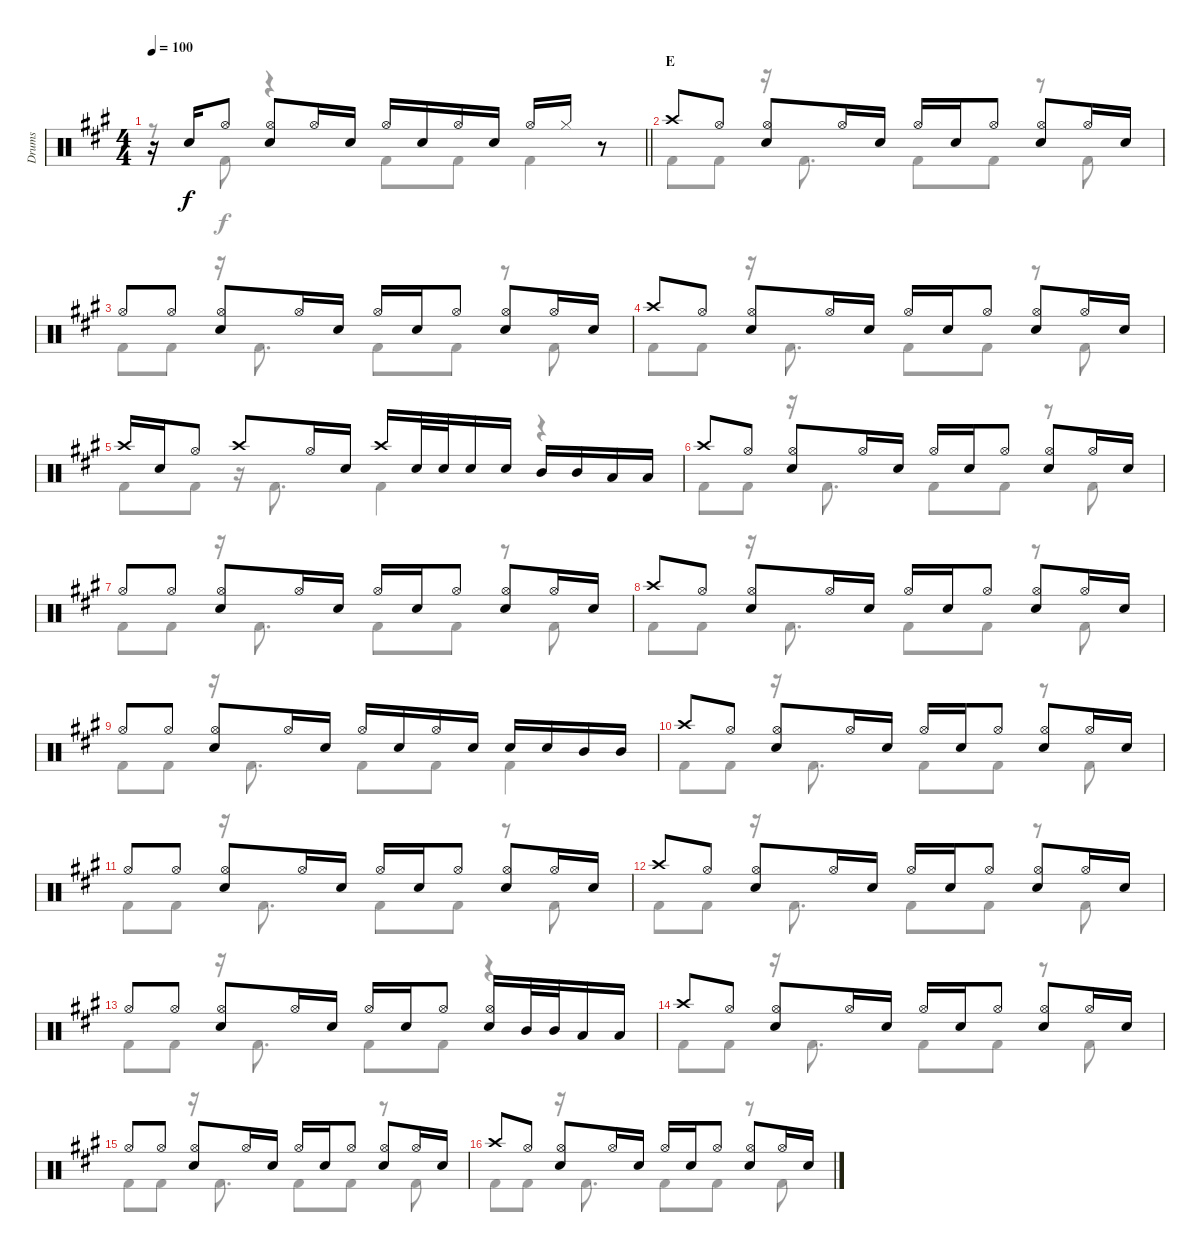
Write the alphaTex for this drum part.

\track ("Drums" "Drums") {instrument percussion}
\staff {score}
\articulation defaults
\voice
\ts (4 4)
\tempo 100
\clef neutral
\barLineRight lightlight
\ks a
r.16{dy f} "Electric Snare (hit)".16 "Hi-Hat (open)".8 ("Hi-Hat (open)" "Electric Snare (hit)").8 "Hi-Hat (open)".16 "Electric Snare (hit)".16 "Hi-Hat (open)".16 "Electric Snare (hit)".16 "Hi-Hat (open)".16 "Electric Snare (hit)".16 "Hi-Hat (open)".16 "Hi-Hat (closed)".16 r.8 |
\section ("" "E")
"Crash high (hit)".8 "Hi-Hat (open)".8 ("Hi-Hat (open)" "Electric Snare (hit)").8 "Hi-Hat (open)".16 "Electric Snare (hit)".16 "Hi-Hat (open)".16 "Electric Snare (hit)".16 "Hi-Hat (open)".8 ("Hi-Hat (open)" "Electric Snare (hit)").8 "Hi-Hat (open)".16 "Electric Snare (hit)".16 |
"Hi-Hat (open)".8 "Hi-Hat (open)".8 ("Hi-Hat (open)" "Electric Snare (hit)").8 "Hi-Hat (open)".16 "Electric Snare (hit)".16 "Hi-Hat (open)".16 "Electric Snare (hit)".16 "Hi-Hat (open)".8 ("Hi-Hat (open)" "Electric Snare (hit)").8 "Hi-Hat (open)".16 "Electric Snare (hit)".16 |
"Crash high (hit)".8 "Hi-Hat (open)".8 ("Hi-Hat (open)" "Electric Snare (hit)").8 "Hi-Hat (open)".16 "Electric Snare (hit)".16 "Hi-Hat (open)".16 "Electric Snare (hit)".16 "Hi-Hat (open)".8 ("Hi-Hat (open)" "Electric Snare (hit)").8 "Hi-Hat (open)".16 "Electric Snare (hit)".16 |
"Crash high (hit)".16 "Electric Snare (hit)".16 "Hi-Hat (open)".8 "Crash high (hit)".8 "Hi-Hat (open)".16 "Electric Snare (hit)".16 "Crash high (hit)".16 "Electric Snare (hit)".32 "Electric Snare (hit)".32 "Electric Snare (hit)".16 "Electric Snare (hit)".16 "Mid Tom (hit)".16 "Mid Tom (hit)".16 "Low Tom (hit)".16 "Low Tom (hit)".16 |
"Crash high (hit)".8 "Hi-Hat (open)".8 ("Hi-Hat (open)" "Electric Snare (hit)").8 "Hi-Hat (open)".16 "Electric Snare (hit)".16 "Hi-Hat (open)".16 "Electric Snare (hit)".16 "Hi-Hat (open)".8 ("Hi-Hat (open)" "Electric Snare (hit)").8 "Hi-Hat (open)".16 "Electric Snare (hit)".16 |
"Hi-Hat (open)".8 "Hi-Hat (open)".8 ("Hi-Hat (open)" "Electric Snare (hit)").8 "Hi-Hat (open)".16 "Electric Snare (hit)".16 "Hi-Hat (open)".16 "Electric Snare (hit)".16 "Hi-Hat (open)".8 ("Hi-Hat (open)" "Electric Snare (hit)").8 "Hi-Hat (open)".16 "Electric Snare (hit)".16 |
"Crash high (hit)".8 "Hi-Hat (open)".8 ("Hi-Hat (open)" "Electric Snare (hit)").8 "Hi-Hat (open)".16 "Electric Snare (hit)".16 "Hi-Hat (open)".16 "Electric Snare (hit)".16 "Hi-Hat (open)".8 ("Hi-Hat (open)" "Electric Snare (hit)").8 "Hi-Hat (open)".16 "Electric Snare (hit)".16 |
"Hi-Hat (open)".8 "Hi-Hat (open)".8 ("Hi-Hat (open)" "Electric Snare (hit)").8 "Hi-Hat (open)".16 "Electric Snare (hit)".16 "Hi-Hat (open)".16 "Electric Snare (hit)".16 "Hi-Hat (open)".16 "Electric Snare (hit)".16 "Electric Snare (hit)".16 "Electric Snare (hit)".16 "Mid Tom (hit)".16 "Mid Tom (hit)".16 |
"Crash high (hit)".8 "Hi-Hat (open)".8 ("Hi-Hat (open)" "Electric Snare (hit)").8 "Hi-Hat (open)".16 "Electric Snare (hit)".16 "Hi-Hat (open)".16 "Electric Snare (hit)".16 "Hi-Hat (open)".8 ("Hi-Hat (open)" "Electric Snare (hit)").8 "Hi-Hat (open)".16 "Electric Snare (hit)".16 |
"Hi-Hat (open)".8 "Hi-Hat (open)".8 ("Hi-Hat (open)" "Electric Snare (hit)").8 "Hi-Hat (open)".16 "Electric Snare (hit)".16 "Hi-Hat (open)".16 "Electric Snare (hit)".16 "Hi-Hat (open)".8 ("Hi-Hat (open)" "Electric Snare (hit)").8 "Hi-Hat (open)".16 "Electric Snare (hit)".16 |
"Crash high (hit)".8 "Hi-Hat (open)".8 ("Hi-Hat (open)" "Electric Snare (hit)").8 "Hi-Hat (open)".16 "Electric Snare (hit)".16 "Hi-Hat (open)".16 "Electric Snare (hit)".16 "Hi-Hat (open)".8 ("Hi-Hat (open)" "Electric Snare (hit)").8 "Hi-Hat (open)".16 "Electric Snare (hit)".16 |
"Hi-Hat (open)".8 "Hi-Hat (open)".8 ("Hi-Hat (open)" "Electric Snare (hit)").8 "Hi-Hat (open)".16 "Electric Snare (hit)".16 "Hi-Hat (open)".16 "Electric Snare (hit)".16 "Hi-Hat (open)".8 ("Hi-Hat (open)" "Electric Snare (hit)").16 "Mid Tom (hit)".32 "Mid Tom (hit)".32 "Low Tom (hit)".16 "Low Tom (hit)".16 |
"Crash high (hit)".8 "Hi-Hat (open)".8 ("Hi-Hat (open)" "Electric Snare (hit)").8 "Hi-Hat (open)".16 "Electric Snare (hit)".16 "Hi-Hat (open)".16 "Electric Snare (hit)".16 "Hi-Hat (open)".8 ("Hi-Hat (open)" "Electric Snare (hit)").8 "Hi-Hat (open)".16 "Electric Snare (hit)".16 |
"Hi-Hat (open)".8 "Hi-Hat (open)".8 ("Hi-Hat (open)" "Electric Snare (hit)").8 "Hi-Hat (open)".16 "Electric Snare (hit)".16 "Hi-Hat (open)".16 "Electric Snare (hit)".16 "Hi-Hat (open)".8 ("Hi-Hat (open)" "Electric Snare (hit)").8 "Hi-Hat (open)".16 "Electric Snare (hit)".16 |
"Crash high (hit)".8 "Hi-Hat (open)".8 ("Hi-Hat (open)" "Electric Snare (hit)").8 "Hi-Hat (open)".16 "Electric Snare (hit)".16 "Hi-Hat (open)".16 "Electric Snare (hit)".16 "Hi-Hat (open)".8 ("Hi-Hat (open)" "Electric Snare (hit)").8 "Hi-Hat (open)".16 "Electric Snare (hit)".16
\voice
\clef neutral
\ottava regular
\simile none
\barLineRight lightlight
\ks a
r.8{dy f} "Kick (hit) 2".8 r.4 "Kick (hit) 2".8 "Kick (hit) 2".8 "Kick (hit) 2".4 |
"Kick (hit) 2".8 "Kick (hit) 2".8 r.16 "Kick (hit) 2".8{d} "Kick (hit) 2".8 "Kick (hit) 2".8 r.8 "Kick (hit) 2".8 |
"Kick (hit) 2".8 "Kick (hit) 2".8 r.16 "Kick (hit) 2".8{d} "Kick (hit) 2".8 "Kick (hit) 2".8 r.8 "Kick (hit) 2".8 |
"Kick (hit) 2".8 "Kick (hit) 2".8 r.16 "Kick (hit) 2".8{d} "Kick (hit) 2".8 "Kick (hit) 2".8 r.8 "Kick (hit) 2".8 |
"Kick (hit) 2".8 "Kick (hit) 2".8 r.16 "Kick (hit) 2".8{d} "Kick (hit) 2".4 r.4 |
"Kick (hit) 2".8 "Kick (hit) 2".8 r.16 "Kick (hit) 2".8{d} "Kick (hit) 2".8 "Kick (hit) 2".8 r.8 "Kick (hit) 2".8 |
"Kick (hit) 2".8 "Kick (hit) 2".8 r.16 "Kick (hit) 2".8{d} "Kick (hit) 2".8 "Kick (hit) 2".8 r.8 "Kick (hit) 2".8 |
"Kick (hit) 2".8 "Kick (hit) 2".8 r.16 "Kick (hit) 2".8{d} "Kick (hit) 2".8 "Kick (hit) 2".8 r.8 "Kick (hit) 2".8 |
"Kick (hit) 2".8 "Kick (hit) 2".8 r.16 "Kick (hit) 2".8{d} "Kick (hit) 2".8 "Kick (hit) 2".8 "Kick (hit) 2".4 |
"Kick (hit) 2".8 "Kick (hit) 2".8 r.16 "Kick (hit) 2".8{d} "Kick (hit) 2".8 "Kick (hit) 2".8 r.8 "Kick (hit) 2".8 |
"Kick (hit) 2".8 "Kick (hit) 2".8 r.16 "Kick (hit) 2".8{d} "Kick (hit) 2".8 "Kick (hit) 2".8 r.8 "Kick (hit) 2".8 |
"Kick (hit) 2".8 "Kick (hit) 2".8 r.16 "Kick (hit) 2".8{d} "Kick (hit) 2".8 "Kick (hit) 2".8 r.8 "Kick (hit) 2".8 |
"Kick (hit) 2".8 "Kick (hit) 2".8 r.16 "Kick (hit) 2".8{d} "Kick (hit) 2".8 "Kick (hit) 2".8 r.4 |
"Kick (hit) 2".8 "Kick (hit) 2".8 r.16 "Kick (hit) 2".8{d} "Kick (hit) 2".8 "Kick (hit) 2".8 r.8 "Kick (hit) 2".8 |
"Kick (hit) 2".8 "Kick (hit) 2".8 r.16 "Kick (hit) 2".8{d} "Kick (hit) 2".8 "Kick (hit) 2".8 r.8 "Kick (hit) 2".8 |
"Kick (hit) 2".8 "Kick (hit) 2".8 r.16 "Kick (hit) 2".8{d} "Kick (hit) 2".8 "Kick (hit) 2".8 r.8 "Kick (hit) 2".8
